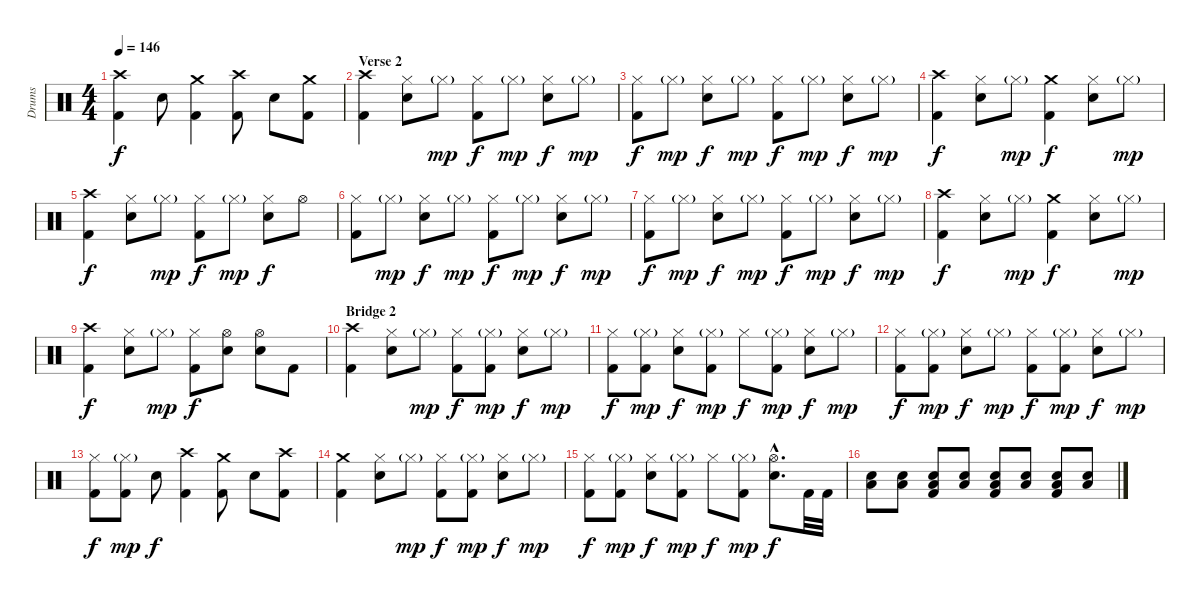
\track ("Drums" "Drums") {instrument percussion}
\staff {score}
\articulation defaults
\ts (4 4)
\tempo 146
\clef neutral
\ks c
("Crash high (hit)" "Kick (hit) 2").4{dy f} "Snare (hit) 2".8 ("Crash medium (hit)" "Kick (hit) 2").4 ("Crash high (hit)" "Kick (hit) 2").8 "Snare (hit) 2".8 ("Crash medium (hit)" "Kick (hit) 2").8 |
\section ("" "Verse 2")
("Crash high (hit)" "Kick (hit) 2").4 ("Hi-Hat (closed)" "Snare (hit) 2").8 "Hi-Hat (closed)"{g}.8{dy mp} ("Hi-Hat (closed)" "Kick (hit) 2").8{dy f} "Hi-Hat (closed)"{g}.8{dy mp} ("Hi-Hat (closed)" "Snare (hit) 2").8{dy f} "Hi-Hat (closed)"{g}.8{dy mp} |
("Hi-Hat (closed)" "Kick (hit) 2").8{dy f} "Hi-Hat (closed)"{g}.8{dy mp} ("Hi-Hat (closed)" "Snare (hit) 2").8{dy f} "Hi-Hat (closed)"{g}.8{dy mp} ("Hi-Hat (closed)" "Kick (hit) 2").8{dy f} "Hi-Hat (closed)"{g}.8{dy mp} ("Hi-Hat (closed)" "Snare (hit) 2").8{dy f} "Hi-Hat (closed)"{g}.8{dy mp} |
("Crash high (hit)" "Kick (hit) 2").4{dy f} ("Hi-Hat (closed)" "Snare (hit) 2").8 "Hi-Hat (closed)"{g}.8{dy mp} ("Crash medium (hit)" "Kick (hit) 2").4{dy f} ("Hi-Hat (closed)" "Snare (hit) 2").8 "Hi-Hat (closed)"{g}.8{dy mp} |
("Crash high (hit)" "Kick (hit) 2").4{dy f} ("Hi-Hat (closed)" "Snare (hit) 2").8 "Hi-Hat (closed)"{g}.8{dy mp} ("Hi-Hat (closed)" "Kick (hit) 2").8{dy f} "Hi-Hat (closed)"{g}.8{dy mp} ("Hi-Hat (closed)" "Snare (hit) 2").8{dy f} "Hi-Hat (open)".8 |
("Hi-Hat (closed)" "Kick (hit) 2").8 "Hi-Hat (closed)"{g}.8{dy mp} ("Hi-Hat (closed)" "Snare (hit) 2").8{dy f} "Hi-Hat (closed)"{g}.8{dy mp} ("Hi-Hat (closed)" "Kick (hit) 2").8{dy f} "Hi-Hat (closed)"{g}.8{dy mp} ("Hi-Hat (closed)" "Snare (hit) 2").8{dy f} "Hi-Hat (closed)"{g}.8{dy mp} |
("Hi-Hat (closed)" "Kick (hit) 2").8{dy f} "Hi-Hat (closed)"{g}.8{dy mp} ("Hi-Hat (closed)" "Snare (hit) 2").8{dy f} "Hi-Hat (closed)"{g}.8{dy mp} ("Hi-Hat (closed)" "Kick (hit) 2").8{dy f} "Hi-Hat (closed)"{g}.8{dy mp} ("Hi-Hat (closed)" "Snare (hit) 2").8{dy f} "Hi-Hat (closed)"{g}.8{dy mp} |
("Crash high (hit)" "Kick (hit) 2").4{dy f} ("Hi-Hat (closed)" "Snare (hit) 2").8 "Hi-Hat (closed)"{g}.8{dy mp} ("Crash medium (hit)" "Kick (hit) 2").4{dy f} ("Hi-Hat (closed)" "Snare (hit) 2").8 "Hi-Hat (closed)"{g}.8{dy mp} |
("Crash high (hit)" "Kick (hit) 2").4{dy f} ("Hi-Hat (closed)" "Snare (hit) 2").8 "Hi-Hat (closed)"{g}.8{dy mp} ("Hi-Hat (closed)" "Kick (hit) 2").8{dy f} ("Hi-Hat (open)" "Snare (hit) 2").8 ("Hi-Hat (open)" "Snare (hit) 2").8 "Kick (hit) 2".8 |
\section ("" "Bridge 2")
("Crash high (hit)" "Kick (hit) 2").4 ("Hi-Hat (closed)" "Snare (hit) 2").8 "Hi-Hat (closed)"{g}.8{dy mp} ("Hi-Hat (closed)" "Kick (hit) 2").8{dy f} ("Hi-Hat (closed)"{g} "Kick (hit) 2").8{dy mp} ("Hi-Hat (closed)" "Snare (hit) 2").8{dy f} "Hi-Hat (closed)"{g}.8{dy mp} |
("Hi-Hat (closed)" "Kick (hit) 2").8{dy f} ("Hi-Hat (closed)"{g} "Kick (hit) 2").8{dy mp} ("Hi-Hat (closed)" "Snare (hit) 2").8{dy f} ("Hi-Hat (closed)"{g} "Kick (hit) 2").8{dy mp} "Hi-Hat (closed)".8{dy f} ("Hi-Hat (closed)"{g} "Kick (hit) 2").8{dy mp} ("Hi-Hat (closed)" "Snare (hit) 2").8{dy f} "Hi-Hat (closed)"{g}.8{dy mp} |
("Hi-Hat (closed)" "Kick (hit) 2").8{dy f} ("Hi-Hat (closed)"{g} "Kick (hit) 2").8{dy mp} ("Hi-Hat (closed)" "Snare (hit) 2").8{dy f} "Hi-Hat (closed)"{g}.8{dy mp} ("Hi-Hat (closed)" "Kick (hit) 2").8{dy f} ("Hi-Hat (closed)"{g} "Kick (hit) 2").8{dy mp} ("Hi-Hat (closed)" "Snare (hit) 2").8{dy f} "Hi-Hat (closed)"{g}.8{dy mp} |
("Hi-Hat (closed)" "Kick (hit) 2").8{dy f} ("Hi-Hat (closed)"{g} "Kick (hit) 2").8{dy mp} "Snare (hit) 2".8{dy f} ("Crash high (hit)" "Kick (hit) 2").4 ("Crash medium (hit)" "Kick (hit) 2").8 "Snare (hit) 2".8 ("Crash high (hit)" "Kick (hit) 2").8 |
("Crash medium (hit)" "Kick (hit) 2").4 ("Hi-Hat (closed)" "Snare (hit) 2").8 "Hi-Hat (closed)"{g}.8{dy mp} ("Hi-Hat (closed)" "Kick (hit) 2").8{dy f} ("Hi-Hat (closed)"{g} "Kick (hit) 2").8{dy mp} ("Hi-Hat (closed)" "Snare (hit) 2").8{dy f} "Hi-Hat (closed)"{g}.8{dy mp} |
("Hi-Hat (closed)" "Kick (hit) 2").8{dy f} ("Hi-Hat (closed)"{g} "Kick (hit) 2").8{dy mp} ("Hi-Hat (closed)" "Snare (hit) 2").8{dy f} ("Hi-Hat (closed)"{g} "Kick (hit) 2").8{dy mp} "Hi-Hat (closed)".8{dy f} ("Hi-Hat (closed)"{g} "Kick (hit) 2").8{dy mp} ("Hi-Hat (open)"{hac} "Snare (hit) 2"{hac}).8{d dy f} "Kick (hit) 2".32 "Kick (hit) 2".32 |
("Low Floor Tom (hit)" "Snare (hit) 2").8 ("Low Floor Tom (hit)" "Snare (hit) 2").8 ("Low Floor Tom (hit)" "Snare (hit) 2" "Kick (hit) 2").8 ("Low Floor Tom (hit)" "Snare (hit) 2").8 ("Low Floor Tom (hit)" "Snare (hit) 2" "Kick (hit) 2").8 ("Low Floor Tom (hit)" "Snare (hit) 2").8 ("Low Floor Tom (hit)" "Snare (hit) 2" "Kick (hit) 2").8 ("Low Floor Tom (hit)" "Snare (hit) 2").8
